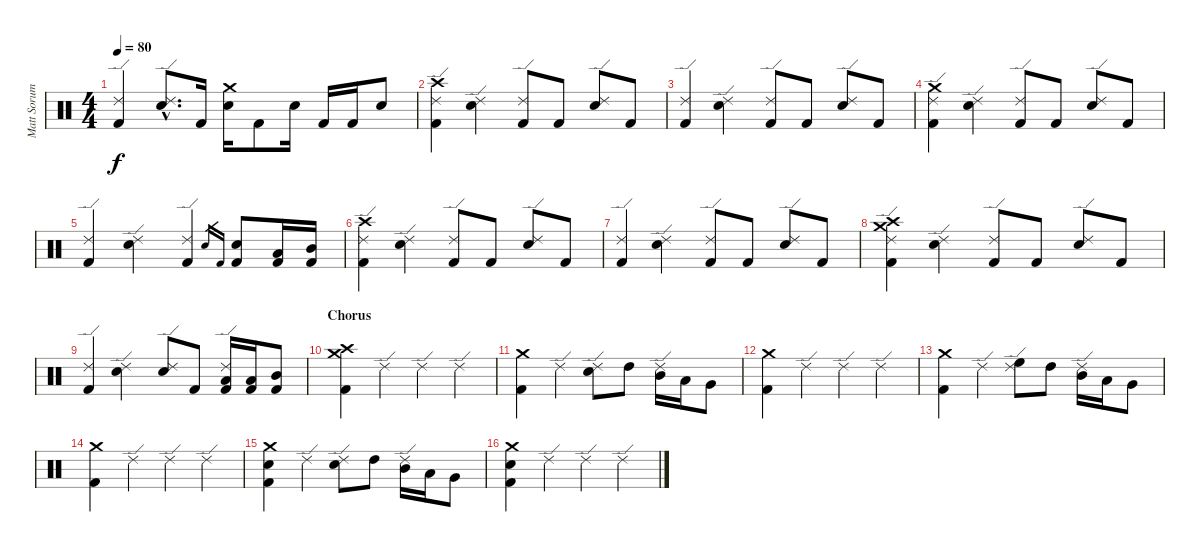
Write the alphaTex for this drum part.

\track ("Matt Sorum" "Matt Sorum") {instrument percussion}
\staff {score}
\articulation defaults
\ts (4 4)
\tempo 80
\clef neutral
\ks c
("Ride (edge) 2" "Kick (hit) 2").4{dy f} ("Electric Snare (hit)"{hac} "Ride (edge) 2"{hac}).8{d} "Kick (hit) 2".16 ("Electric Snare (hit)" "Crash medium (hit)").16 "Kick (hit) 2".8 "Electric Snare (hit)".16 "Kick (hit) 2".16 "Kick (hit) 2".16 "Electric Snare (hit)".8 |
("Ride (edge) 2" "Kick (hit) 2" "Crash high (hit)").4 ("Electric Snare (hit)" "Ride (edge) 2").4 ("Ride (edge) 2" "Kick (hit) 2").8 "Kick (hit) 2".8 ("Electric Snare (hit)" "Ride (edge) 2").8 "Kick (hit) 2".8 |
("Ride (edge) 2" "Kick (hit) 2").4 ("Electric Snare (hit)" "Ride (edge) 2").4 ("Ride (edge) 2" "Kick (hit) 2").8 "Kick (hit) 2".8 ("Electric Snare (hit)" "Ride (edge) 2").8 "Kick (hit) 2".8 |
("Ride (edge) 2" "Kick (hit) 2" "Crash medium (hit)").4 ("Electric Snare (hit)" "Ride (edge) 2").4 ("Ride (edge) 2" "Kick (hit) 2").8 "Kick (hit) 2".8 ("Electric Snare (hit)" "Ride (edge) 2").8 "Kick (hit) 2".8 |
("Ride (edge) 2" "Kick (hit) 2").4 ("Electric Snare (hit)" "Ride (edge) 2").4 ("Ride (edge) 2" "Kick (hit) 2").4 "Electric Snare (hit)".16{gr} "Kick (hit) 2".16{gr} ("Electric Snare (hit)" "Kick (hit) 2").8 ("Low Tom (hit)" "Kick (hit) 2").16 ("Mid Tom (hit)" "Kick (hit) 2").16 |
("Ride (edge) 2" "Kick (hit) 2" "Crash high (hit)").4 ("Electric Snare (hit)" "Ride (edge) 2").4 ("Ride (edge) 2" "Kick (hit) 2").8 "Kick (hit) 2".8 ("Electric Snare (hit)" "Ride (edge) 2").8 "Kick (hit) 2".8 |
("Ride (edge) 2" "Kick (hit) 2").4 ("Electric Snare (hit)" "Ride (edge) 2").4 ("Ride (edge) 2" "Kick (hit) 2").8 "Kick (hit) 2".8 ("Electric Snare (hit)" "Ride (edge) 2").8 "Kick (hit) 2".8 |
("Ride (edge) 2" "Kick (hit) 2" "Crash medium (hit)" "Crash high (hit)").4 ("Electric Snare (hit)" "Ride (edge) 2").4 ("Ride (edge) 2" "Kick (hit) 2").8 "Kick (hit) 2".8 ("Electric Snare (hit)" "Ride (edge) 2").8 "Kick (hit) 2".8 |
("Ride (edge) 2" "Kick (hit) 2").4 ("Electric Snare (hit)" "Ride (edge) 2").4 ("Electric Snare (hit)" "Ride (edge) 2").8 "Kick (hit) 2".8 ("Ride (edge) 2" "Low Tom (hit)" "Kick (hit) 2").16 ("Low Tom (hit)" "Kick (hit) 2").16 ("Mid Tom (hit)" "Kick (hit) 2").8 |
\section ("" "Chorus")
("Kick (hit) 2" "Crash medium (hit)" "Crash high (hit)").4 "Ride (edge) 2".4 "Ride (edge) 2".4 "Ride (edge) 2".4 |
("Crash medium (hit)" "Kick (hit) 2").4 "Ride (edge) 2".4 ("Ride (edge) 2" "Electric Snare (hit)").8 "High Tom (hit)".8 ("Ride (edge) 2" "Mid Tom (hit)").16 "Low Tom (hit)".16 "Very Low Tom (hit)".8 |
("Crash medium (hit)" "Kick (hit) 2").4 "Ride (edge) 2".4 "Ride (edge) 2".4 "Ride (edge) 2".4 |
("Crash medium (hit)" "Kick (hit) 2").4 "Ride (edge) 2".4 ("Ride (edge) 2" "High Floor Tom (hit)").8 "High Tom (hit)".8 ("Ride (edge) 2" "Mid Tom (hit)").16 "Low Tom (hit)".16 "Very Low Tom (hit)".8 |
("Crash medium (hit)" "Kick (hit) 2").4 "Ride (edge) 2".4 "Ride (edge) 2".4 "Ride (edge) 2".4 |
("Electric Snare (hit)" "Crash medium (hit)" "Kick (hit) 2").4 "Ride (edge) 2".4 ("Ride (edge) 2" "Electric Snare (hit)").8 "High Tom (hit)".8 ("Ride (edge) 2" "Mid Tom (hit)").16 "Low Tom (hit)".16 "Very Low Tom (hit)".8 |
("Electric Snare (hit)" "Crash medium (hit)" "Kick (hit) 2").4 "Ride (edge) 2".4 "Ride (edge) 2".4 "Ride (edge) 2".4
